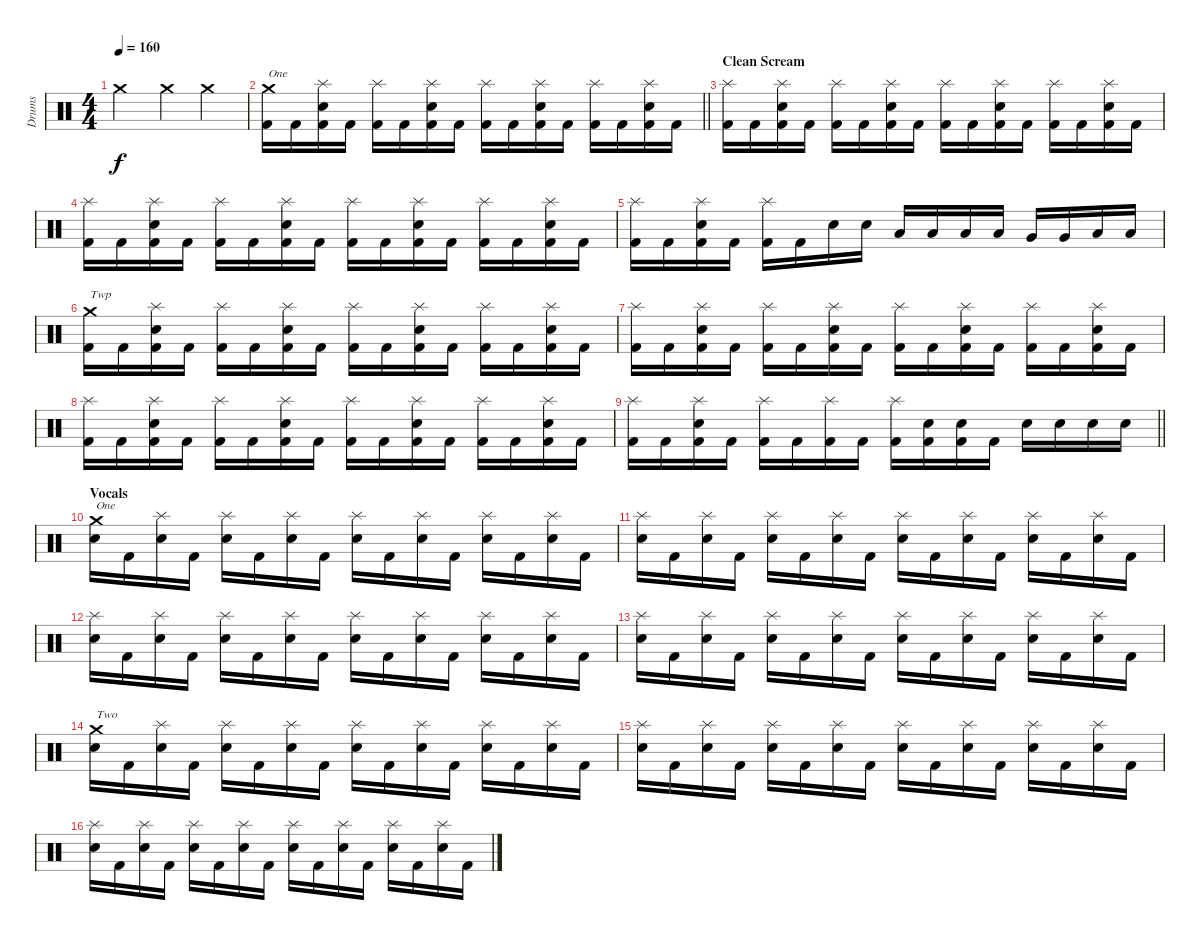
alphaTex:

\track ("Drums" "Drums") {instrument percussion}
\staff {score}
\articulation defaults
\ts (4 4)
\tempo 160
\clef neutral
\ks c "Crash medium (hit)".2{dy f} "Crash medium (hit)".4 "Crash medium (hit)".4
|
\barLineRight lightlight
("Crash medium (hit)" "Kick (hit) 2").16{txt "One"} "Kick (hit) 2".16 ("Splash (hit)" "Snare (hit) 2" "Kick (hit) 2").16 "Kick (hit) 2".16 ("Splash (hit)" "Kick (hit) 2").16 "Kick (hit) 2".16 ("Splash (hit)" "Snare (hit) 2" "Kick (hit) 2").16 "Kick (hit) 2".16 ("Splash (hit)" "Kick (hit) 2").16 "Kick (hit) 2".16 ("Splash (hit)" "Snare (hit) 2" "Kick (hit) 2").16 "Kick (hit) 2".16 ("Splash (hit)" "Kick (hit) 2").16 "Kick (hit) 2".16 ("Splash (hit)" "Snare (hit) 2" "Kick (hit) 2").16 "Kick (hit) 2".16 |
\section ("" "Clean Scream")
("Splash (hit)" "Kick (hit) 2").16 "Kick (hit) 2".16 ("Splash (hit)" "Snare (hit) 2" "Kick (hit) 2").16 "Kick (hit) 2".16 ("Splash (hit)" "Kick (hit) 2").16 "Kick (hit) 2".16 ("Splash (hit)" "Snare (hit) 2" "Kick (hit) 2").16 "Kick (hit) 2".16 ("Splash (hit)" "Kick (hit) 2").16 "Kick (hit) 2".16 ("Splash (hit)" "Snare (hit) 2" "Kick (hit) 2").16 "Kick (hit) 2".16 ("Splash (hit)" "Kick (hit) 2").16 "Kick (hit) 2".16 ("Splash (hit)" "Snare (hit) 2" "Kick (hit) 2").16 "Kick (hit) 2".16 |
("Splash (hit)" "Kick (hit) 2").16 "Kick (hit) 2".16 ("Splash (hit)" "Snare (hit) 2" "Kick (hit) 2").16 "Kick (hit) 2".16 ("Splash (hit)" "Kick (hit) 2").16 "Kick (hit) 2".16 ("Splash (hit)" "Snare (hit) 2" "Kick (hit) 2").16 "Kick (hit) 2".16 ("Splash (hit)" "Kick (hit) 2").16 "Kick (hit) 2".16 ("Splash (hit)" "Snare (hit) 2" "Kick (hit) 2").16 "Kick (hit) 2".16 ("Splash (hit)" "Kick (hit) 2").16 "Kick (hit) 2".16 ("Splash (hit)" "Snare (hit) 2" "Kick (hit) 2").16 "Kick (hit) 2".16 |
("Splash (hit)" "Kick (hit) 2").16 "Kick (hit) 2".16 ("Splash (hit)" "Snare (hit) 2" "Kick (hit) 2").16 "Kick (hit) 2".16 ("Splash (hit)" "Kick (hit) 2").16 "Kick (hit) 2".16 "Snare (hit) 2".16 "Snare (hit) 2".16 "Low Tom (hit)".16 "Low Tom (hit)".16 "Low Tom (hit)".16 "Low Tom (hit)".16 "Very Low Tom (hit)".16 "Very Low Tom (hit)".16 "Low Floor Tom (hit)".16 "Low Floor Tom (hit)".16 |
("Crash medium (hit)" "Kick (hit) 2").16{txt "Twp"} "Kick (hit) 2".16 ("Splash (hit)" "Snare (hit) 2" "Kick (hit) 2").16 "Kick (hit) 2".16 ("Splash (hit)" "Kick (hit) 2").16 "Kick (hit) 2".16 ("Splash (hit)" "Snare (hit) 2" "Kick (hit) 2").16 "Kick (hit) 2".16 ("Splash (hit)" "Kick (hit) 2").16 "Kick (hit) 2".16 ("Splash (hit)" "Snare (hit) 2" "Kick (hit) 2").16 "Kick (hit) 2".16 ("Splash (hit)" "Kick (hit) 2").16 "Kick (hit) 2".16 ("Splash (hit)" "Snare (hit) 2" "Kick (hit) 2").16 "Kick (hit) 2".16 |
("Splash (hit)" "Kick (hit) 2").16 "Kick (hit) 2".16 ("Splash (hit)" "Snare (hit) 2" "Kick (hit) 2").16 "Kick (hit) 2".16 ("Splash (hit)" "Kick (hit) 2").16 "Kick (hit) 2".16 ("Splash (hit)" "Snare (hit) 2" "Kick (hit) 2").16 "Kick (hit) 2".16 ("Splash (hit)" "Kick (hit) 2").16 "Kick (hit) 2".16 ("Splash (hit)" "Snare (hit) 2" "Kick (hit) 2").16 "Kick (hit) 2".16 ("Splash (hit)" "Kick (hit) 2").16 "Kick (hit) 2".16 ("Splash (hit)" "Snare (hit) 2" "Kick (hit) 2").16 "Kick (hit) 2".16 |
("Splash (hit)" "Kick (hit) 2").16 "Kick (hit) 2".16 ("Splash (hit)" "Snare (hit) 2" "Kick (hit) 2").16 "Kick (hit) 2".16 ("Splash (hit)" "Kick (hit) 2").16 "Kick (hit) 2".16 ("Splash (hit)" "Snare (hit) 2" "Kick (hit) 2").16 "Kick (hit) 2".16 ("Splash (hit)" "Kick (hit) 2").16 "Kick (hit) 2".16 ("Splash (hit)" "Snare (hit) 2" "Kick (hit) 2").16 "Kick (hit) 2".16 ("Splash (hit)" "Kick (hit) 2").16 "Kick (hit) 2".16 ("Splash (hit)" "Snare (hit) 2" "Kick (hit) 2").16 "Kick (hit) 2".16 |
\barLineRight lightlight
("Splash (hit)" "Kick (hit) 2").16 "Kick (hit) 2".16 ("Splash (hit)" "Snare (hit) 2" "Kick (hit) 2").16 "Kick (hit) 2".16 ("Splash (hit)" "Kick (hit) 2").16 "Kick (hit) 2".16 ("Splash (hit)" "Kick (hit) 2").16 "Kick (hit) 2".16 ("Splash (hit)" "Kick (hit) 2").16 ("Snare (hit) 2" "Kick (hit) 2").16 ("Snare (hit) 2" "Kick (hit) 2").16 "Kick (hit) 2".16 "Snare (hit) 2".16 "Snare (hit) 2".16 "Snare (hit) 2".16 "Snare (hit) 2".16 |
\section ("" "Vocals")
("Crash medium (hit)" "Snare (hit) 2").16{txt "One"} "Kick (hit) 2".16 ("Splash (hit)" "Snare (hit) 2").16 "Kick (hit) 2".16 ("Splash (hit)" "Snare (hit) 2").16 "Kick (hit) 2".16 ("Splash (hit)" "Snare (hit) 2").16 "Kick (hit) 2".16 ("Splash (hit)" "Snare (hit) 2").16 "Kick (hit) 2".16 ("Splash (hit)" "Snare (hit) 2").16 "Kick (hit) 2".16 ("Splash (hit)" "Snare (hit) 2").16 "Kick (hit) 2".16 ("Splash (hit)" "Snare (hit) 2").16 "Kick (hit) 2".16 |
("Splash (hit)" "Snare (hit) 2").16 "Kick (hit) 2".16 ("Splash (hit)" "Snare (hit) 2").16 "Kick (hit) 2".16 ("Splash (hit)" "Snare (hit) 2").16 "Kick (hit) 2".16 ("Splash (hit)" "Snare (hit) 2").16 "Kick (hit) 2".16 ("Splash (hit)" "Snare (hit) 2").16 "Kick (hit) 2".16 ("Splash (hit)" "Snare (hit) 2").16 "Kick (hit) 2".16 ("Splash (hit)" "Snare (hit) 2").16 "Kick (hit) 2".16 ("Splash (hit)" "Snare (hit) 2").16 "Kick (hit) 2".16 |
("Splash (hit)" "Snare (hit) 2").16 "Kick (hit) 2".16 ("Splash (hit)" "Snare (hit) 2").16 "Kick (hit) 2".16 ("Splash (hit)" "Snare (hit) 2").16 "Kick (hit) 2".16 ("Splash (hit)" "Snare (hit) 2").16 "Kick (hit) 2".16 ("Splash (hit)" "Snare (hit) 2").16 "Kick (hit) 2".16 ("Splash (hit)" "Snare (hit) 2").16 "Kick (hit) 2".16 ("Splash (hit)" "Snare (hit) 2").16 "Kick (hit) 2".16 ("Splash (hit)" "Snare (hit) 2").16 "Kick (hit) 2".16 |
("Splash (hit)" "Snare (hit) 2").16 "Kick (hit) 2".16 ("Splash (hit)" "Snare (hit) 2").16 "Kick (hit) 2".16 ("Splash (hit)" "Snare (hit) 2").16 "Kick (hit) 2".16 ("Splash (hit)" "Snare (hit) 2").16 "Kick (hit) 2".16 ("Splash (hit)" "Snare (hit) 2").16 "Kick (hit) 2".16 ("Splash (hit)" "Snare (hit) 2").16 "Kick (hit) 2".16 ("Splash (hit)" "Snare (hit) 2").16 "Kick (hit) 2".16 ("Splash (hit)" "Snare (hit) 2").16 "Kick (hit) 2".16 |
("Crash medium (hit)" "Snare (hit) 2").16{txt "Two"} "Kick (hit) 2".16 ("Splash (hit)" "Snare (hit) 2").16 "Kick (hit) 2".16 ("Splash (hit)" "Snare (hit) 2").16 "Kick (hit) 2".16 ("Splash (hit)" "Snare (hit) 2").16 "Kick (hit) 2".16 ("Splash (hit)" "Snare (hit) 2").16 "Kick (hit) 2".16 ("Splash (hit)" "Snare (hit) 2").16 "Kick (hit) 2".16 ("Splash (hit)" "Snare (hit) 2").16 "Kick (hit) 2".16 ("Splash (hit)" "Snare (hit) 2").16 "Kick (hit) 2".16 |
("Splash (hit)" "Snare (hit) 2").16 "Kick (hit) 2".16 ("Splash (hit)" "Snare (hit) 2").16 "Kick (hit) 2".16 ("Splash (hit)" "Snare (hit) 2").16 "Kick (hit) 2".16 ("Splash (hit)" "Snare (hit) 2").16 "Kick (hit) 2".16 ("Splash (hit)" "Snare (hit) 2").16 "Kick (hit) 2".16 ("Splash (hit)" "Snare (hit) 2").16 "Kick (hit) 2".16 ("Splash (hit)" "Snare (hit) 2").16 "Kick (hit) 2".16 ("Splash (hit)" "Snare (hit) 2").16 "Kick (hit) 2".16 |
("Splash (hit)" "Snare (hit) 2").16 "Kick (hit) 2".16 ("Splash (hit)" "Snare (hit) 2").16 "Kick (hit) 2".16 ("Splash (hit)" "Snare (hit) 2").16 "Kick (hit) 2".16 ("Splash (hit)" "Snare (hit) 2").16 "Kick (hit) 2".16 ("Splash (hit)" "Snare (hit) 2").16 "Kick (hit) 2".16 ("Splash (hit)" "Snare (hit) 2").16 "Kick (hit) 2".16 ("Splash (hit)" "Snare (hit) 2").16 "Kick (hit) 2".16 ("Splash (hit)" "Snare (hit) 2").16 "Kick (hit) 2".16
